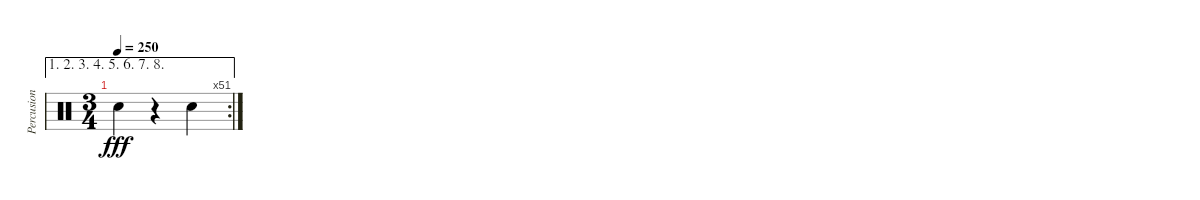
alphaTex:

\track ("Percusion" "Percusion") {instrument percussion}
\staff {score}
\articulation defaults
\ae (1 2 3 4 5 6 7 8)
\rc 51
\ts (3 4)
\tempo 250
\clef neutral
\ks c "Hand Clap (hit)".4{dy fff}
r.4 "Hand Clap (hit)".4
